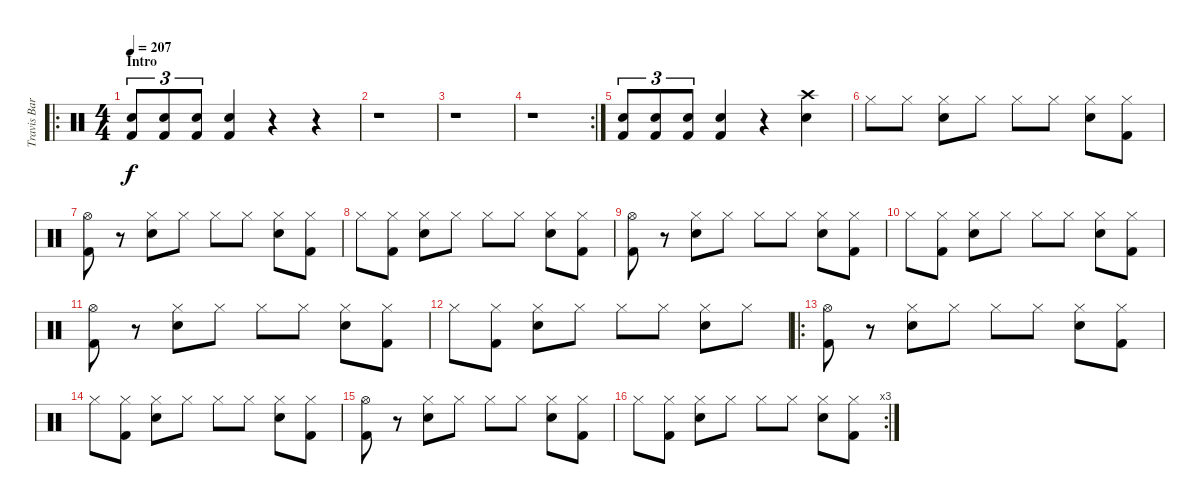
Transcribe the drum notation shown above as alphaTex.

\track ("Travis Barker" "Travis Bar") {instrument percussion}
\staff {score}
\articulation defaults
\ro
\ts (4 4)
\section ("" "Intro")
\tempo 207
\clef neutral
\ks c
("Kick (hit) 2" "Snare (hit) 2").8{tu (3 2) dy f} ("Kick (hit) 2" "Snare (hit) 2").8{tu (3 2)} ("Kick (hit) 2" "Snare (hit) 2").8{tu (3 2)} ("Kick (hit) 2" "Snare (hit) 2").4 r.4 r.4 |
r.1 |
r.1 |
\rc 2
r.1 |
("Kick (hit) 2" "Snare (hit) 2").8{tu (3 2)} ("Kick (hit) 2" "Snare (hit) 2").8{tu (3 2)} ("Kick (hit) 2" "Snare (hit) 2").8{tu (3 2)} ("Kick (hit) 2" "Snare (hit) 2").4 r.4 ("Crash high (hit)" "Electric Snare (hit)").4 |
"Hi-Hat (closed)".8 "Hi-Hat (closed)".8 ("Hi-Hat (closed)" "Electric Snare (hit)").8 "Hi-Hat (closed)".8 "Hi-Hat (closed)".8 "Hi-Hat (closed)".8 ("Hi-Hat (closed)" "Electric Snare (hit)").8 ("Hi-Hat (closed)" "Kick (hit) 2").8 |
("Hi-Hat (open)" "Kick (hit) 2").8 r.8 ("Hi-Hat (closed)" "Electric Snare (hit)").8 "Hi-Hat (closed)".8 "Hi-Hat (closed)".8 "Hi-Hat (closed)".8 ("Hi-Hat (closed)" "Electric Snare (hit)").8 ("Hi-Hat (closed)" "Kick (hit) 2").8 |
"Hi-Hat (closed)".8 ("Hi-Hat (closed)" "Kick (hit) 2").8 ("Hi-Hat (closed)" "Electric Snare (hit)").8 "Hi-Hat (closed)".8 "Hi-Hat (closed)".8 "Hi-Hat (closed)".8 ("Hi-Hat (closed)" "Electric Snare (hit)").8 ("Hi-Hat (closed)" "Kick (hit) 2").8 |
("Hi-Hat (open)" "Kick (hit) 2").8 r.8 ("Hi-Hat (closed)" "Electric Snare (hit)").8 "Hi-Hat (closed)".8 "Hi-Hat (closed)".8 "Hi-Hat (closed)".8 ("Hi-Hat (closed)" "Electric Snare (hit)").8 ("Hi-Hat (closed)" "Kick (hit) 2").8 |
"Hi-Hat (closed)".8 ("Hi-Hat (closed)" "Kick (hit) 2").8 ("Hi-Hat (closed)" "Electric Snare (hit)").8 "Hi-Hat (closed)".8 "Hi-Hat (closed)".8 "Hi-Hat (closed)".8 ("Hi-Hat (closed)" "Electric Snare (hit)").8 ("Hi-Hat (closed)" "Kick (hit) 2").8 |
("Hi-Hat (open)" "Kick (hit) 2").8 r.8 ("Hi-Hat (closed)" "Electric Snare (hit)").8 "Hi-Hat (closed)".8 "Hi-Hat (closed)".8 "Hi-Hat (closed)".8 ("Hi-Hat (closed)" "Electric Snare (hit)").8 ("Hi-Hat (closed)" "Kick (hit) 2").8 |
"Hi-Hat (closed)".8 ("Hi-Hat (closed)" "Kick (hit) 2").8 ("Hi-Hat (closed)" "Electric Snare (hit)").8 "Hi-Hat (closed)".8 "Hi-Hat (closed)".8 "Hi-Hat (closed)".8 ("Hi-Hat (closed)" "Electric Snare (hit)").8 "Hi-Hat (closed)".8 |
\ro
("Hi-Hat (open)" "Kick (hit) 2").8 r.8 ("Hi-Hat (closed)" "Electric Snare (hit)").8 "Hi-Hat (closed)".8 "Hi-Hat (closed)".8 "Hi-Hat (closed)".8 ("Hi-Hat (closed)" "Electric Snare (hit)").8 ("Hi-Hat (closed)" "Kick (hit) 2").8 |
"Hi-Hat (closed)".8 ("Hi-Hat (closed)" "Kick (hit) 2").8 ("Hi-Hat (closed)" "Electric Snare (hit)").8 "Hi-Hat (closed)".8 "Hi-Hat (closed)".8 "Hi-Hat (closed)".8 ("Hi-Hat (closed)" "Electric Snare (hit)").8 ("Hi-Hat (closed)" "Kick (hit) 2").8 |
("Hi-Hat (open)" "Kick (hit) 2").8 r.8 ("Hi-Hat (closed)" "Electric Snare (hit)").8 "Hi-Hat (closed)".8 "Hi-Hat (closed)".8 "Hi-Hat (closed)".8 ("Hi-Hat (closed)" "Electric Snare (hit)").8 ("Hi-Hat (closed)" "Kick (hit) 2").8 |
\rc 3 "Hi-Hat (closed)".8
("Hi-Hat (closed)" "Kick (hit) 2").8 ("Hi-Hat (closed)" "Electric Snare (hit)").8 "Hi-Hat (closed)".8 "Hi-Hat (closed)".8 "Hi-Hat (closed)".8 ("Hi-Hat (closed)" "Electric Snare (hit)").8 ("Hi-Hat (closed)" "Kick (hit) 2").8
